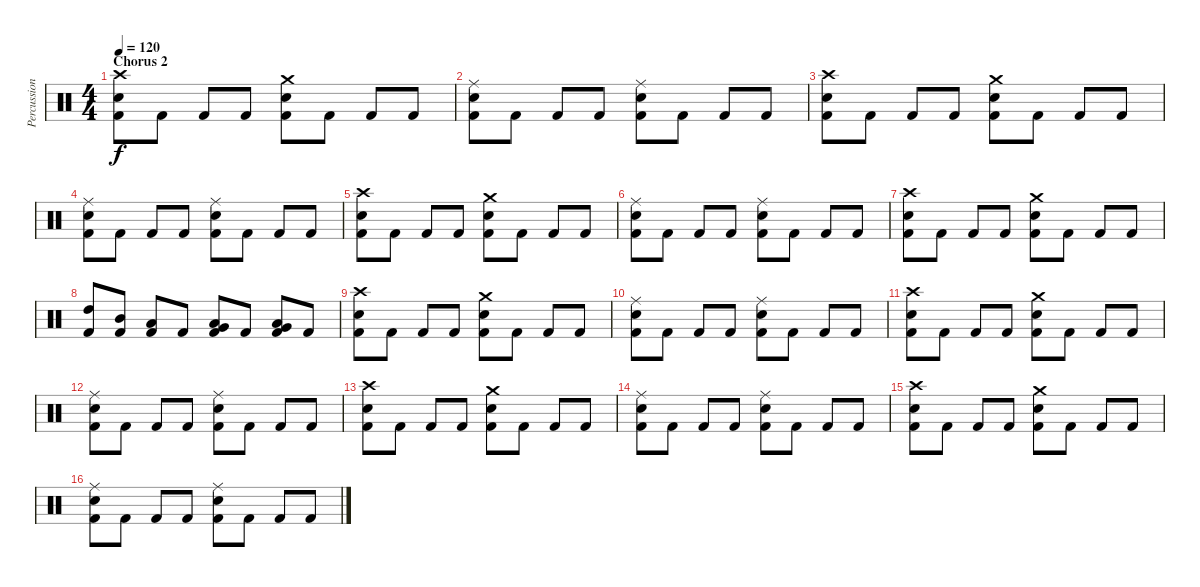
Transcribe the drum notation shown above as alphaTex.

\track ("Percussioni" "Percussion") {instrument percussion}
\staff {score}
\articulation defaults
\ts (4 4)
\section ("" "Chorus 2")
\tempo 120
\clef neutral
\ks c
("Crash high (hit)" "Electric Snare (hit)" "Kick (hit) 2").8{dy f} "Kick (hit) 2".8 "Kick (hit) 2".8 "Kick (hit) 2".8 ("Crash medium (hit)" "Electric Snare (hit)" "Kick (hit) 2").8 "Kick (hit) 2".8 "Kick (hit) 2".8 "Kick (hit) 2".8 |
("Ride (middle)" "Electric Snare (hit)" "Kick (hit) 2").8 "Kick (hit) 2".8 "Kick (hit) 2".8 "Kick (hit) 2".8 ("Ride (middle)" "Electric Snare (hit)" "Kick (hit) 2").8 "Kick (hit) 2".8 "Kick (hit) 2".8 "Kick (hit) 2".8 |
("Crash high (hit)" "Electric Snare (hit)" "Kick (hit) 2").8 "Kick (hit) 2".8 "Kick (hit) 2".8 "Kick (hit) 2".8 ("Crash medium (hit)" "Electric Snare (hit)" "Kick (hit) 2").8 "Kick (hit) 2".8 "Kick (hit) 2".8 "Kick (hit) 2".8 |
("Ride (middle)" "Electric Snare (hit)" "Kick (hit) 2").8 "Kick (hit) 2".8 "Kick (hit) 2".8 "Kick (hit) 2".8 ("Ride (middle)" "Electric Snare (hit)" "Kick (hit) 2").8 "Kick (hit) 2".8 "Kick (hit) 2".8 "Kick (hit) 2".8 |
("Crash high (hit)" "Electric Snare (hit)" "Kick (hit) 2").8 "Kick (hit) 2".8 "Kick (hit) 2".8 "Kick (hit) 2".8 ("Crash medium (hit)" "Electric Snare (hit)" "Kick (hit) 2").8 "Kick (hit) 2".8 "Kick (hit) 2".8 "Kick (hit) 2".8 |
("Ride (middle)" "Electric Snare (hit)" "Kick (hit) 2").8 "Kick (hit) 2".8 "Kick (hit) 2".8 "Kick (hit) 2".8 ("Ride (middle)" "Electric Snare (hit)" "Kick (hit) 2").8 "Kick (hit) 2".8 "Kick (hit) 2".8 "Kick (hit) 2".8 |
("Crash high (hit)" "Electric Snare (hit)" "Kick (hit) 2").8 "Kick (hit) 2".8 "Kick (hit) 2".8 "Kick (hit) 2".8 ("Crash medium (hit)" "Electric Snare (hit)" "Kick (hit) 2").8 "Kick (hit) 2".8 "Kick (hit) 2".8 "Kick (hit) 2".8 |
("High Tom (hit)" "Kick (hit) 2").8 ("Mid Tom (hit)" "Kick (hit) 2").8 ("Low Tom (hit)" "Kick (hit) 2").8 "Kick (hit) 2".8 ("Very Low Tom (hit)" "Low Floor Tom (hit)" "Kick (hit) 2").8 "Kick (hit) 2".8 ("Very Low Tom (hit)" "Low Floor Tom (hit)" "Kick (hit) 2").8 "Kick (hit) 2".8 |
("Crash high (hit)" "Electric Snare (hit)" "Kick (hit) 2").8 "Kick (hit) 2".8 "Kick (hit) 2".8 "Kick (hit) 2".8 ("Crash medium (hit)" "Electric Snare (hit)" "Kick (hit) 2").8 "Kick (hit) 2".8 "Kick (hit) 2".8 "Kick (hit) 2".8 |
("Ride (middle)" "Electric Snare (hit)" "Kick (hit) 2").8 "Kick (hit) 2".8 "Kick (hit) 2".8 "Kick (hit) 2".8 ("Ride (middle)" "Electric Snare (hit)" "Kick (hit) 2").8 "Kick (hit) 2".8 "Kick (hit) 2".8 "Kick (hit) 2".8 |
("Crash high (hit)" "Electric Snare (hit)" "Kick (hit) 2").8 "Kick (hit) 2".8 "Kick (hit) 2".8 "Kick (hit) 2".8 ("Crash medium (hit)" "Electric Snare (hit)" "Kick (hit) 2").8 "Kick (hit) 2".8 "Kick (hit) 2".8 "Kick (hit) 2".8 |
("Ride (middle)" "Electric Snare (hit)" "Kick (hit) 2").8 "Kick (hit) 2".8 "Kick (hit) 2".8 "Kick (hit) 2".8 ("Ride (middle)" "Electric Snare (hit)" "Kick (hit) 2").8 "Kick (hit) 2".8 "Kick (hit) 2".8 "Kick (hit) 2".8 |
("Crash high (hit)" "Electric Snare (hit)" "Kick (hit) 2").8 "Kick (hit) 2".8 "Kick (hit) 2".8 "Kick (hit) 2".8 ("Crash medium (hit)" "Electric Snare (hit)" "Kick (hit) 2").8 "Kick (hit) 2".8 "Kick (hit) 2".8 "Kick (hit) 2".8 |
("Ride (middle)" "Electric Snare (hit)" "Kick (hit) 2").8 "Kick (hit) 2".8 "Kick (hit) 2".8 "Kick (hit) 2".8 ("Ride (middle)" "Electric Snare (hit)" "Kick (hit) 2").8 "Kick (hit) 2".8 "Kick (hit) 2".8 "Kick (hit) 2".8 |
("Crash high (hit)" "Electric Snare (hit)" "Kick (hit) 2").8 "Kick (hit) 2".8 "Kick (hit) 2".8 "Kick (hit) 2".8 ("Crash medium (hit)" "Electric Snare (hit)" "Kick (hit) 2").8 "Kick (hit) 2".8 "Kick (hit) 2".8 "Kick (hit) 2".8 |
("Ride (middle)" "Electric Snare (hit)" "Kick (hit) 2").8 "Kick (hit) 2".8 "Kick (hit) 2".8 "Kick (hit) 2".8 ("Ride (middle)" "Electric Snare (hit)" "Kick (hit) 2").8 "Kick (hit) 2".8 "Kick (hit) 2".8 "Kick (hit) 2".8
